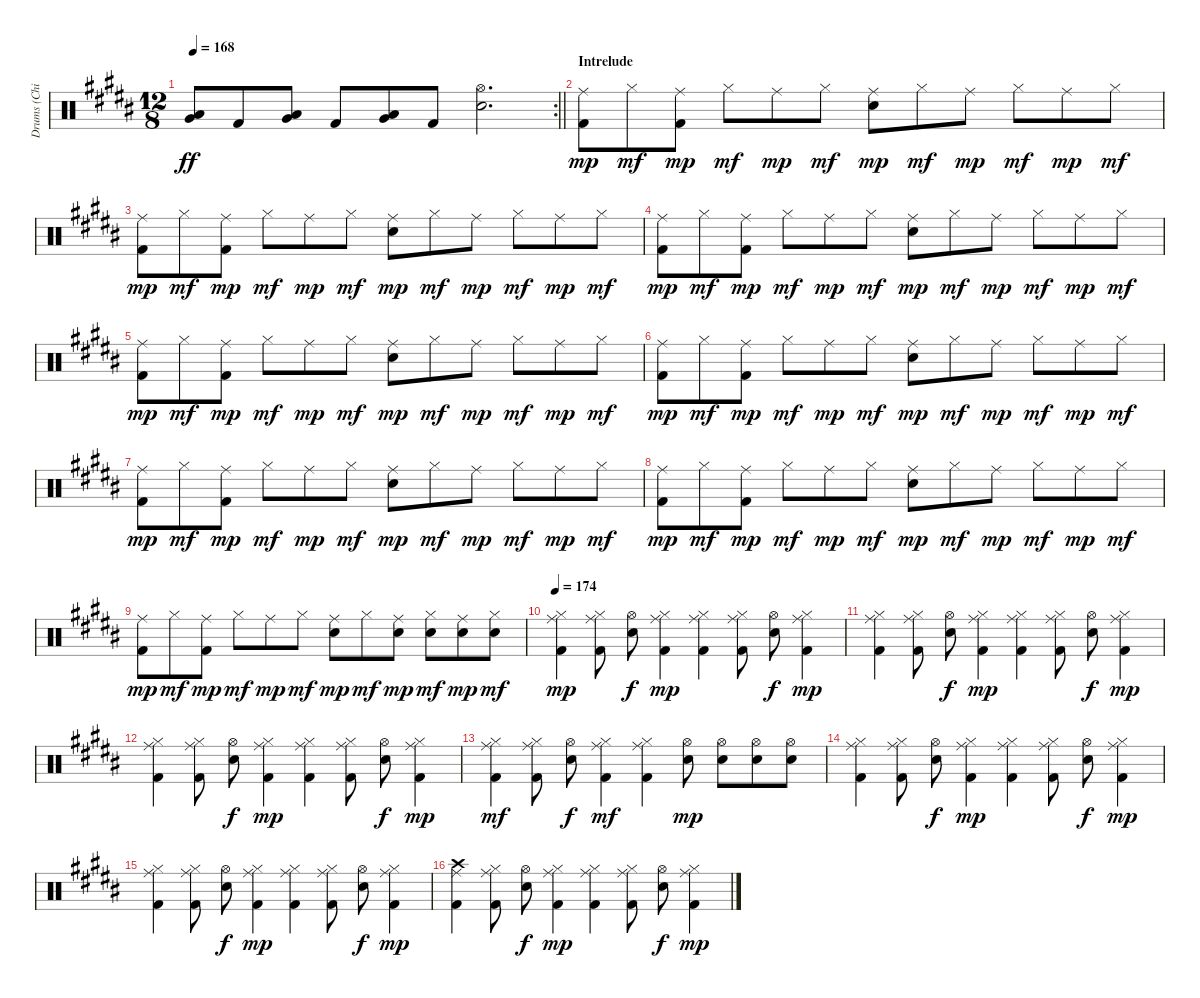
\track ("Drums (Chinyakov)" "Drums (Chi") {instrument percussion}
\staff {score}
\articulation defaults
\rc 2
\ts (12 8)
\tempo 168
\clef neutral
\barLineRight lightlight
\ks b
("Low Floor Tom (hit)" "Very Low Tom (hit)").8{bd 120 dy ff} "Kick (hit) 2".8 ("Low Floor Tom (hit)" "Very Low Tom (hit)").8{bd 120} "Kick (hit) 2".8 ("Low Floor Tom (hit)" "Very Low Tom (hit)").8{bd 120} "Kick (hit) 2".8 ("Electric Snare (hit)" "Hi-Hat (open)").2{d} |
\section ("" "Intrelude")
("Kick (hit) 2" "Ride (middle)").8{dy mp} "Hi-Hat (closed)".8{dy mf} ("Kick (hit) 2" "Ride (middle)").8{dy mp} "Hi-Hat (closed)".8{dy mf} "Ride (middle)".8{dy mp} "Hi-Hat (closed)".8{dy mf} ("Electric Snare (hit)" "Ride (middle)").8{dy mp} "Hi-Hat (closed)".8{dy mf} "Ride (middle)".8{dy mp} "Hi-Hat (closed)".8{dy mf} "Ride (middle)".8{dy mp} "Hi-Hat (closed)".8{dy mf} |
("Kick (hit) 2" "Ride (middle)").8{dy mp} "Hi-Hat (closed)".8{dy mf} ("Kick (hit) 2" "Ride (middle)").8{dy mp} "Hi-Hat (closed)".8{dy mf} "Ride (middle)".8{dy mp} "Hi-Hat (closed)".8{dy mf} ("Electric Snare (hit)" "Ride (middle)").8{dy mp} "Hi-Hat (closed)".8{dy mf} "Ride (middle)".8{dy mp} "Hi-Hat (closed)".8{dy mf} "Ride (middle)".8{dy mp} "Hi-Hat (closed)".8{dy mf} |
("Kick (hit) 2" "Ride (middle)").8{dy mp} "Hi-Hat (closed)".8{dy mf} ("Kick (hit) 2" "Ride (middle)").8{dy mp} "Hi-Hat (closed)".8{dy mf} "Ride (middle)".8{dy mp} "Hi-Hat (closed)".8{dy mf} ("Electric Snare (hit)" "Ride (middle)").8{dy mp} "Hi-Hat (closed)".8{dy mf} "Ride (middle)".8{dy mp} "Hi-Hat (closed)".8{dy mf} "Ride (middle)".8{dy mp} "Hi-Hat (closed)".8{dy mf} |
("Kick (hit) 2" "Ride (middle)").8{dy mp} "Hi-Hat (closed)".8{dy mf} ("Kick (hit) 2" "Ride (middle)").8{dy mp} "Hi-Hat (closed)".8{dy mf} "Ride (middle)".8{dy mp} "Hi-Hat (closed)".8{dy mf} ("Electric Snare (hit)" "Ride (middle)").8{dy mp} "Hi-Hat (closed)".8{dy mf} "Ride (middle)".8{dy mp} "Hi-Hat (closed)".8{dy mf} "Ride (middle)".8{dy mp} "Hi-Hat (closed)".8{dy mf} |
("Kick (hit) 2" "Ride (middle)").8{dy mp} "Hi-Hat (closed)".8{dy mf} ("Kick (hit) 2" "Ride (middle)").8{dy mp} "Hi-Hat (closed)".8{dy mf} "Ride (middle)".8{dy mp} "Hi-Hat (closed)".8{dy mf} ("Electric Snare (hit)" "Ride (middle)").8{dy mp} "Hi-Hat (closed)".8{dy mf} "Ride (middle)".8{dy mp} "Hi-Hat (closed)".8{dy mf} "Ride (middle)".8{dy mp} "Hi-Hat (closed)".8{dy mf} |
("Kick (hit) 2" "Ride (middle)").8{dy mp} "Hi-Hat (closed)".8{dy mf} ("Kick (hit) 2" "Ride (middle)").8{dy mp} "Hi-Hat (closed)".8{dy mf} "Ride (middle)".8{dy mp} "Hi-Hat (closed)".8{dy mf} ("Electric Snare (hit)" "Ride (middle)").8{dy mp} "Hi-Hat (closed)".8{dy mf} "Ride (middle)".8{dy mp} "Hi-Hat (closed)".8{dy mf} "Ride (middle)".8{dy mp} "Hi-Hat (closed)".8{dy mf} |
("Kick (hit) 2" "Ride (middle)").8{dy mp} "Hi-Hat (closed)".8{dy mf} ("Kick (hit) 2" "Ride (middle)").8{dy mp} "Hi-Hat (closed)".8{dy mf} "Ride (middle)".8{dy mp} "Hi-Hat (closed)".8{dy mf} ("Electric Snare (hit)" "Ride (middle)").8{dy mp} "Hi-Hat (closed)".8{dy mf} "Ride (middle)".8{dy mp} "Hi-Hat (closed)".8{dy mf} "Ride (middle)".8{dy mp} "Hi-Hat (closed)".8{dy mf} |
("Kick (hit) 2" "Ride (middle)").8{dy mp} "Hi-Hat (closed)".8{dy mf} ("Kick (hit) 2" "Ride (middle)").8{dy mp} "Hi-Hat (closed)".8{dy mf} "Ride (middle)".8{dy mp} "Hi-Hat (closed)".8{dy mf} ("Electric Snare (hit)" "Ride (middle)").8{dy mp} "Hi-Hat (closed)".8{dy mf} ("Electric Snare (hit)" "Ride (middle)").8{dy mp} ("Electric Snare (hit)" "Hi-Hat (closed)").8{dy mf} ("Electric Snare (hit)" "Ride (middle)").8{dy mp} ("Electric Snare (hit)" "Hi-Hat (closed)").8{dy mf} |
\tempo 174
("Kick (hit) 2" "Hi-Hat (closed)" "Ride (middle)").4{dy mp} ("Kick (hit) 2" "Hi-Hat (closed)" "Ride (middle)").8 ("Electric Snare (hit)" "Hi-Hat (open)").8{dy f} ("Kick (hit) 2" "Hi-Hat (closed)" "Ride (middle)").4{dy mp} ("Kick (hit) 2" "Hi-Hat (closed)" "Ride (middle)").4 ("Kick (hit) 2" "Hi-Hat (closed)" "Ride (middle)").8 ("Electric Snare (hit)" "Hi-Hat (open)").8{dy f} ("Kick (hit) 2" "Hi-Hat (closed)" "Ride (middle)").4{dy mp} |
("Kick (hit) 2" "Hi-Hat (closed)" "Ride (middle)").4 ("Kick (hit) 2" "Hi-Hat (closed)" "Ride (middle)").8 ("Electric Snare (hit)" "Hi-Hat (open)").8{dy f} ("Kick (hit) 2" "Hi-Hat (closed)" "Ride (middle)").4{dy mp} ("Kick (hit) 2" "Hi-Hat (closed)" "Ride (middle)").4 ("Kick (hit) 2" "Hi-Hat (closed)" "Ride (middle)").8 ("Electric Snare (hit)" "Hi-Hat (open)").8{dy f} ("Kick (hit) 2" "Hi-Hat (closed)" "Ride (middle)").4{dy mp} |
("Kick (hit) 2" "Hi-Hat (closed)" "Ride (middle)").4 ("Kick (hit) 2" "Hi-Hat (closed)" "Ride (middle)").8 ("Electric Snare (hit)" "Hi-Hat (open)").8{dy f} ("Kick (hit) 2" "Hi-Hat (closed)" "Ride (middle)").4{dy mp} ("Kick (hit) 2" "Hi-Hat (closed)" "Ride (middle)").4 ("Kick (hit) 2" "Hi-Hat (closed)" "Ride (middle)").8 ("Electric Snare (hit)" "Hi-Hat (open)").8{dy f} ("Kick (hit) 2" "Hi-Hat (closed)" "Ride (middle)").4{dy mp} |
("Kick (hit) 2" "Hi-Hat (closed)" "Ride (middle)").4{dy mf} ("Kick (hit) 2" "Hi-Hat (closed)" "Ride (middle)").8 ("Electric Snare (hit)" "Hi-Hat (open)").8{dy f} ("Kick (hit) 2" "Hi-Hat (closed)" "Ride (middle)").4{dy mf} ("Kick (hit) 2" "Hi-Hat (closed)" "Ride (middle)").4 ("Electric Snare (hit)" "Hi-Hat (open)").8{dy mp} ("Electric Snare (hit)" "Hi-Hat (open)").8 ("Electric Snare (hit)" "Hi-Hat (open)").8 ("Electric Snare (hit)" "Hi-Hat (open)").8 |
("Kick (hit) 2" "Hi-Hat (closed)" "Ride (middle)").4 ("Kick (hit) 2" "Hi-Hat (closed)" "Ride (middle)").8 ("Electric Snare (hit)" "Hi-Hat (open)").8{dy f} ("Kick (hit) 2" "Hi-Hat (closed)" "Ride (middle)").4{dy mp} ("Kick (hit) 2" "Hi-Hat (closed)" "Ride (middle)").4 ("Kick (hit) 2" "Hi-Hat (closed)" "Ride (middle)").8 ("Electric Snare (hit)" "Hi-Hat (open)").8{dy f} ("Kick (hit) 2" "Hi-Hat (closed)" "Ride (middle)").4{dy mp} |
("Kick (hit) 2" "Hi-Hat (closed)" "Ride (middle)").4 ("Kick (hit) 2" "Hi-Hat (closed)" "Ride (middle)").8 ("Electric Snare (hit)" "Hi-Hat (open)").8{dy f} ("Kick (hit) 2" "Hi-Hat (closed)" "Ride (middle)").4{dy mp} ("Kick (hit) 2" "Hi-Hat (closed)" "Ride (middle)").4 ("Kick (hit) 2" "Hi-Hat (closed)" "Ride (middle)").8 ("Electric Snare (hit)" "Hi-Hat (open)").8{dy f} ("Kick (hit) 2" "Hi-Hat (closed)" "Ride (middle)").4{dy mp} |
("Kick (hit) 2" "Crash high (hit)" "Ride (middle)").4 ("Kick (hit) 2" "Hi-Hat (closed)" "Ride (middle)").8 ("Electric Snare (hit)" "Hi-Hat (open)").8{dy f} ("Kick (hit) 2" "Hi-Hat (closed)" "Ride (middle)").4{dy mp} ("Kick (hit) 2" "Hi-Hat (closed)" "Ride (middle)").4 ("Kick (hit) 2" "Hi-Hat (closed)" "Ride (middle)").8 ("Electric Snare (hit)" "Hi-Hat (open)").8{dy f} ("Kick (hit) 2" "Hi-Hat (closed)" "Ride (middle)").4{dy mp}
